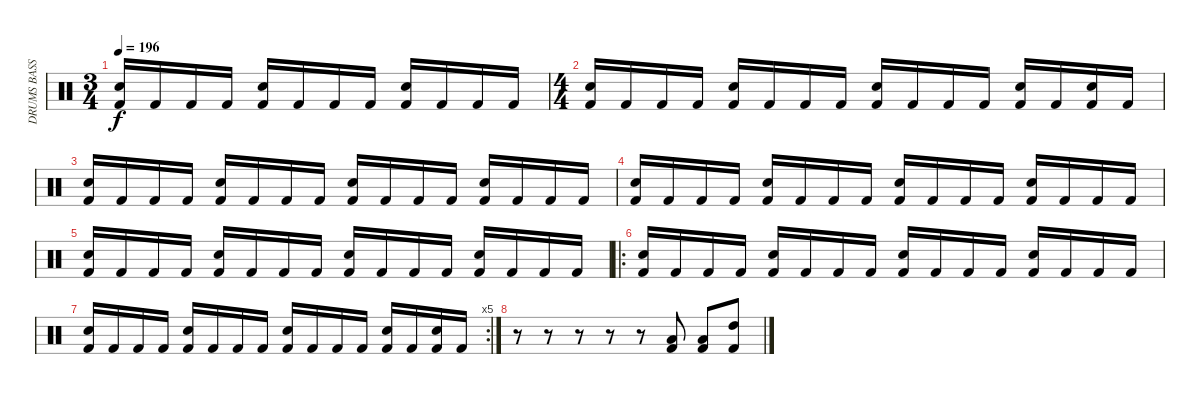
\track ("DRUMS BASS" "DRUMS BASS") {instrument percussion}
\staff {score}
\articulation defaults
\ts (3 4)
\tempo 196
\clef neutral
\ks c
("Electric Snare (hit)" "Kick (hit) 2").16{dy f} "Kick (hit) 2".16 "Kick (hit) 2".16 "Kick (hit) 2".16 ("Electric Snare (hit)" "Kick (hit) 2").16 "Kick (hit) 2".16 "Kick (hit) 2".16 "Kick (hit) 2".16 ("Electric Snare (hit)" "Kick (hit) 2").16 "Kick (hit) 2".16 "Kick (hit) 2".16 "Kick (hit) 2".16 |
\ts (4 4)
("Electric Snare (hit)" "Kick (hit) 2").16 "Kick (hit) 2".16 "Kick (hit) 2".16 "Kick (hit) 2".16 ("Electric Snare (hit)" "Kick (hit) 2").16 "Kick (hit) 2".16 "Kick (hit) 2".16 "Kick (hit) 2".16 ("Electric Snare (hit)" "Kick (hit) 2").16 "Kick (hit) 2".16 "Kick (hit) 2".16 "Kick (hit) 2".16 ("Electric Snare (hit)" "Kick (hit) 2").16 "Kick (hit) 2".16 ("Electric Snare (hit)" "Kick (hit) 2").16 "Kick (hit) 2".16 |
("Electric Snare (hit)" "Kick (hit) 2").16 "Kick (hit) 2".16 "Kick (hit) 2".16 "Kick (hit) 2".16 ("Electric Snare (hit)" "Kick (hit) 2").16 "Kick (hit) 2".16 "Kick (hit) 2".16 "Kick (hit) 2".16 ("Electric Snare (hit)" "Kick (hit) 2").16 "Kick (hit) 2".16 "Kick (hit) 2".16 "Kick (hit) 2".16 ("Electric Snare (hit)" "Kick (hit) 2").16 "Kick (hit) 2".16 "Kick (hit) 2".16 "Kick (hit) 2".16 |
("Electric Snare (hit)" "Kick (hit) 2").16 "Kick (hit) 2".16 "Kick (hit) 2".16 "Kick (hit) 2".16 ("Electric Snare (hit)" "Kick (hit) 2").16 "Kick (hit) 2".16 "Kick (hit) 2".16 "Kick (hit) 2".16 ("Electric Snare (hit)" "Kick (hit) 2").16 "Kick (hit) 2".16 "Kick (hit) 2".16 "Kick (hit) 2".16 ("Electric Snare (hit)" "Kick (hit) 2").16 "Kick (hit) 2".16 "Kick (hit) 2".16 "Kick (hit) 2".16 |
("Electric Snare (hit)" "Kick (hit) 2").16 "Kick (hit) 2".16 "Kick (hit) 2".16 "Kick (hit) 2".16 ("Electric Snare (hit)" "Kick (hit) 2").16 "Kick (hit) 2".16 "Kick (hit) 2".16 "Kick (hit) 2".16 ("Electric Snare (hit)" "Kick (hit) 2").16 "Kick (hit) 2".16 "Kick (hit) 2".16 "Kick (hit) 2".16 ("Electric Snare (hit)" "Kick (hit) 2").16 "Kick (hit) 2".16 "Kick (hit) 2".16 "Kick (hit) 2".16 |
\ro
("Electric Snare (hit)" "Kick (hit) 2").16 "Kick (hit) 2".16 "Kick (hit) 2".16 "Kick (hit) 2".16 ("Electric Snare (hit)" "Kick (hit) 2").16 "Kick (hit) 2".16 "Kick (hit) 2".16 "Kick (hit) 2".16 ("Electric Snare (hit)" "Kick (hit) 2").16 "Kick (hit) 2".16 "Kick (hit) 2".16 "Kick (hit) 2".16 ("Electric Snare (hit)" "Kick (hit) 2").16 "Kick (hit) 2".16 "Kick (hit) 2".16 "Kick (hit) 2".16 |
\rc 5
("Electric Snare (hit)" "Kick (hit) 2").16 "Kick (hit) 2".16 "Kick (hit) 2".16 "Kick (hit) 2".16 ("Electric Snare (hit)" "Kick (hit) 2").16 "Kick (hit) 2".16 "Kick (hit) 2".16 "Kick (hit) 2".16 ("Electric Snare (hit)" "Kick (hit) 2").16 "Kick (hit) 2".16 "Kick (hit) 2".16 "Kick (hit) 2".16 ("Electric Snare (hit)" "Kick (hit) 2").16 "Kick (hit) 2".16 ("Electric Snare (hit)" "Kick (hit) 2").16 "Kick (hit) 2".16 |
r.8 r.8 r.8 r.8 r.8 ("Low Tom (hit)" "Kick (hit) 2").8 ("Low Tom (hit)" "Kick (hit) 2").8 ("High Tom (hit)" "Kick (hit) 2").8
